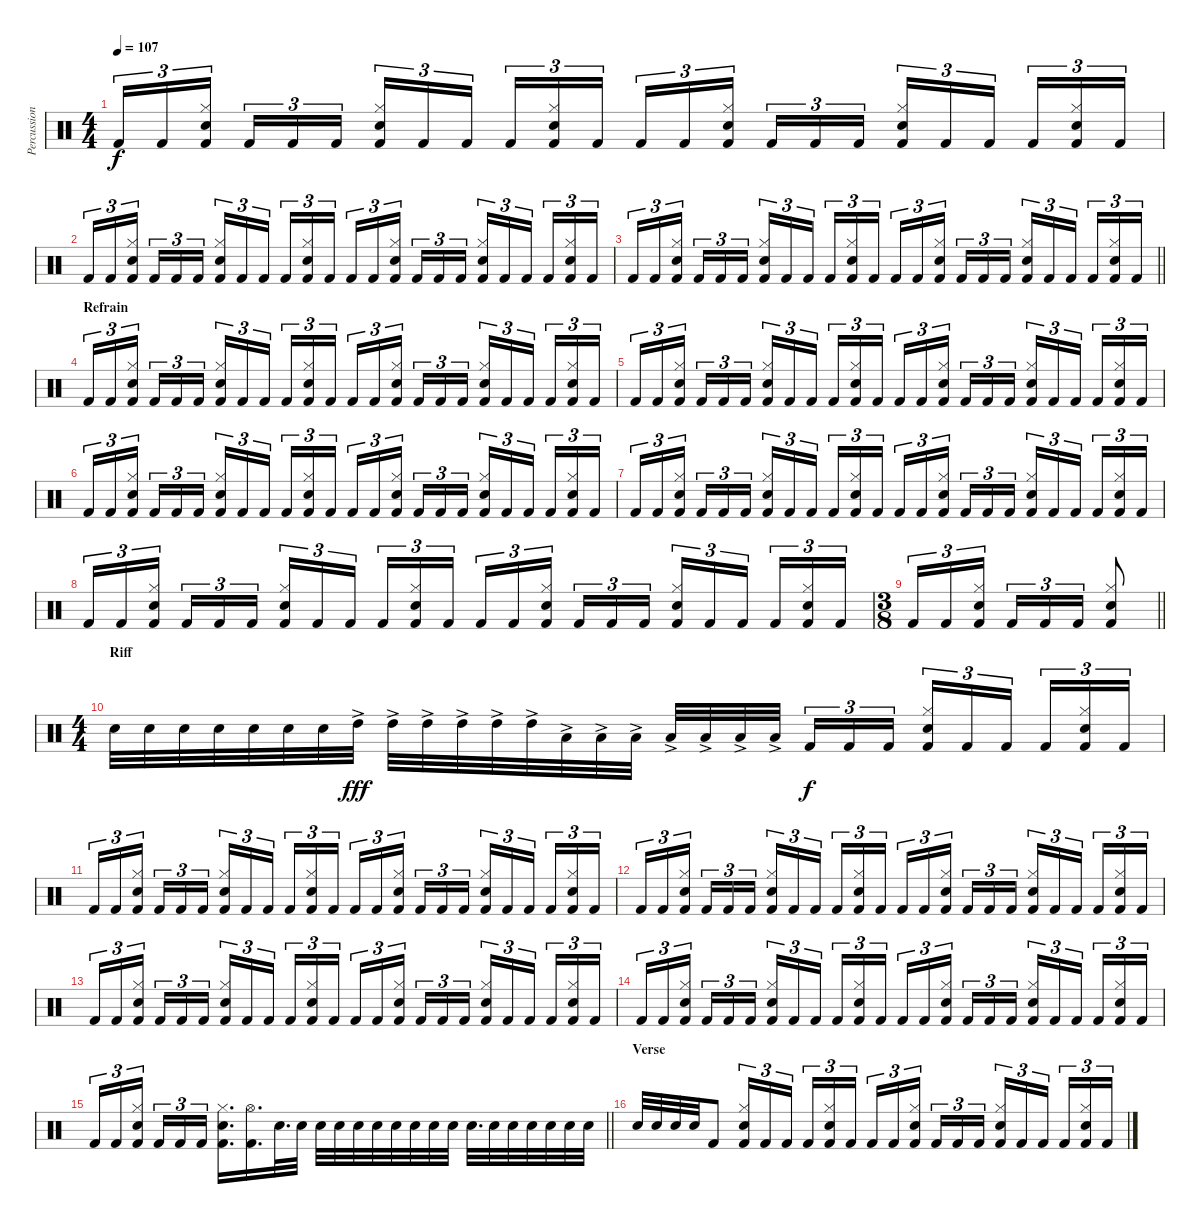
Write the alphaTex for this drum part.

\track ("Percussion" "Percussion") {instrument percussion}
\staff {score}
\articulation defaults
\ts (4 4)
\tempo 107
\clef neutral
\ks c "Kick (hit) 2".16{tu (3 2) dy f} "Kick (hit) 2".16{tu (3 2)}
("Kick (hit) 2" "Hi-Hat (closed)" "Electric Snare (hit)").16{tu (3 2) beam splitsecondary} "Kick (hit) 2".16{tu (3 2)} "Kick (hit) 2".16{tu (3 2)} "Kick (hit) 2".16{tu (3 2)} ("Kick (hit) 2" "Electric Snare (hit)" "Hi-Hat (closed)").16{tu (3 2)} "Kick (hit) 2".16{tu (3 2)} "Kick (hit) 2".16{tu (3 2) beam splitsecondary} "Kick (hit) 2".16{tu (3 2)} ("Kick (hit) 2" "Hi-Hat (closed)" "Electric Snare (hit)").16{tu (3 2)} "Kick (hit) 2".16{tu (3 2)} "Kick (hit) 2".16{tu (3 2)} "Kick (hit) 2".16{tu (3 2)} ("Kick (hit) 2" "Electric Snare (hit)" "Hi-Hat (closed)").16{tu (3 2) beam splitsecondary} "Kick (hit) 2".16{tu (3 2)} "Kick (hit) 2".16{tu (3 2)} "Kick (hit) 2".16{tu (3 2)} ("Kick (hit) 2" "Hi-Hat (closed)" "Electric Snare (hit)").16{tu (3 2)} "Kick (hit) 2".16{tu (3 2)} "Kick (hit) 2".16{tu (3 2) beam splitsecondary} "Kick (hit) 2".16{tu (3 2)} ("Kick (hit) 2" "Electric Snare (hit)" "Hi-Hat (closed)").16{tu (3 2)} "Kick (hit) 2".16{tu (3 2)} |
"Kick (hit) 2".16{tu (3 2)} "Kick (hit) 2".16{tu (3 2)} ("Kick (hit) 2" "Hi-Hat (closed)" "Electric Snare (hit)").16{tu (3 2) beam splitsecondary} "Kick (hit) 2".16{tu (3 2)} "Kick (hit) 2".16{tu (3 2)} "Kick (hit) 2".16{tu (3 2)} ("Kick (hit) 2" "Electric Snare (hit)" "Hi-Hat (closed)").16{tu (3 2)} "Kick (hit) 2".16{tu (3 2)} "Kick (hit) 2".16{tu (3 2) beam splitsecondary} "Kick (hit) 2".16{tu (3 2)} ("Kick (hit) 2" "Hi-Hat (closed)" "Electric Snare (hit)").16{tu (3 2)} "Kick (hit) 2".16{tu (3 2)} "Kick (hit) 2".16{tu (3 2)} "Kick (hit) 2".16{tu (3 2)} ("Kick (hit) 2" "Electric Snare (hit)" "Hi-Hat (closed)").16{tu (3 2) beam splitsecondary} "Kick (hit) 2".16{tu (3 2)} "Kick (hit) 2".16{tu (3 2)} "Kick (hit) 2".16{tu (3 2)} ("Kick (hit) 2" "Hi-Hat (closed)" "Electric Snare (hit)").16{tu (3 2)} "Kick (hit) 2".16{tu (3 2)} "Kick (hit) 2".16{tu (3 2) beam splitsecondary} "Kick (hit) 2".16{tu (3 2)} ("Kick (hit) 2" "Electric Snare (hit)" "Hi-Hat (closed)").16{tu (3 2)} "Kick (hit) 2".16{tu (3 2)} |
\barLineRight lightlight "Kick (hit) 2".16{tu (3 2)} "Kick (hit) 2".16{tu (3 2)}
("Kick (hit) 2" "Hi-Hat (closed)" "Electric Snare (hit)").16{tu (3 2) beam splitsecondary} "Kick (hit) 2".16{tu (3 2)} "Kick (hit) 2".16{tu (3 2)} "Kick (hit) 2".16{tu (3 2)} ("Kick (hit) 2" "Electric Snare (hit)" "Hi-Hat (closed)").16{tu (3 2)} "Kick (hit) 2".16{tu (3 2)} "Kick (hit) 2".16{tu (3 2) beam splitsecondary} "Kick (hit) 2".16{tu (3 2)} ("Kick (hit) 2" "Hi-Hat (closed)" "Electric Snare (hit)").16{tu (3 2)} "Kick (hit) 2".16{tu (3 2)} "Kick (hit) 2".16{tu (3 2)} "Kick (hit) 2".16{tu (3 2)} ("Kick (hit) 2" "Electric Snare (hit)" "Hi-Hat (closed)").16{tu (3 2) beam splitsecondary} "Kick (hit) 2".16{tu (3 2)} "Kick (hit) 2".16{tu (3 2)} "Kick (hit) 2".16{tu (3 2)} ("Kick (hit) 2" "Hi-Hat (closed)" "Electric Snare (hit)").16{tu (3 2)} "Kick (hit) 2".16{tu (3 2)} "Kick (hit) 2".16{tu (3 2) beam splitsecondary} "Kick (hit) 2".16{tu (3 2)} ("Kick (hit) 2" "Electric Snare (hit)" "Hi-Hat (closed)").16{tu (3 2)} "Kick (hit) 2".16{tu (3 2)} |
\section ("" "Refrain")
"Kick (hit) 2".16{tu (3 2)} "Kick (hit) 2".16{tu (3 2)} ("Kick (hit) 2" "Hi-Hat (closed)" "Electric Snare (hit)").16{tu (3 2) beam splitsecondary} "Kick (hit) 2".16{tu (3 2)} "Kick (hit) 2".16{tu (3 2)} "Kick (hit) 2".16{tu (3 2)} ("Kick (hit) 2" "Electric Snare (hit)" "Hi-Hat (closed)").16{tu (3 2)} "Kick (hit) 2".16{tu (3 2)} "Kick (hit) 2".16{tu (3 2) beam splitsecondary} "Kick (hit) 2".16{tu (3 2)} ("Kick (hit) 2" "Hi-Hat (closed)" "Electric Snare (hit)").16{tu (3 2)} "Kick (hit) 2".16{tu (3 2)} "Kick (hit) 2".16{tu (3 2)} "Kick (hit) 2".16{tu (3 2)} ("Kick (hit) 2" "Electric Snare (hit)" "Hi-Hat (closed)").16{tu (3 2) beam splitsecondary} "Kick (hit) 2".16{tu (3 2)} "Kick (hit) 2".16{tu (3 2)} "Kick (hit) 2".16{tu (3 2)} ("Kick (hit) 2" "Hi-Hat (closed)" "Electric Snare (hit)").16{tu (3 2)} "Kick (hit) 2".16{tu (3 2)} "Kick (hit) 2".16{tu (3 2) beam splitsecondary} "Kick (hit) 2".16{tu (3 2)} ("Kick (hit) 2" "Electric Snare (hit)" "Hi-Hat (closed)").16{tu (3 2)} "Kick (hit) 2".16{tu (3 2)} |
"Kick (hit) 2".16{tu (3 2)} "Kick (hit) 2".16{tu (3 2)} ("Kick (hit) 2" "Hi-Hat (closed)" "Electric Snare (hit)").16{tu (3 2) beam splitsecondary} "Kick (hit) 2".16{tu (3 2)} "Kick (hit) 2".16{tu (3 2)} "Kick (hit) 2".16{tu (3 2)} ("Kick (hit) 2" "Electric Snare (hit)" "Hi-Hat (closed)").16{tu (3 2)} "Kick (hit) 2".16{tu (3 2)} "Kick (hit) 2".16{tu (3 2) beam splitsecondary} "Kick (hit) 2".16{tu (3 2)} ("Kick (hit) 2" "Hi-Hat (closed)" "Electric Snare (hit)").16{tu (3 2)} "Kick (hit) 2".16{tu (3 2)} "Kick (hit) 2".16{tu (3 2)} "Kick (hit) 2".16{tu (3 2)} ("Kick (hit) 2" "Electric Snare (hit)" "Hi-Hat (closed)").16{tu (3 2) beam splitsecondary} "Kick (hit) 2".16{tu (3 2)} "Kick (hit) 2".16{tu (3 2)} "Kick (hit) 2".16{tu (3 2)} ("Kick (hit) 2" "Hi-Hat (closed)" "Electric Snare (hit)").16{tu (3 2)} "Kick (hit) 2".16{tu (3 2)} "Kick (hit) 2".16{tu (3 2) beam splitsecondary} "Kick (hit) 2".16{tu (3 2)} ("Kick (hit) 2" "Electric Snare (hit)" "Hi-Hat (closed)").16{tu (3 2)} "Kick (hit) 2".16{tu (3 2)} |
"Kick (hit) 2".16{tu (3 2)} "Kick (hit) 2".16{tu (3 2)} ("Kick (hit) 2" "Hi-Hat (closed)" "Electric Snare (hit)").16{tu (3 2) beam splitsecondary} "Kick (hit) 2".16{tu (3 2)} "Kick (hit) 2".16{tu (3 2)} "Kick (hit) 2".16{tu (3 2)} ("Kick (hit) 2" "Electric Snare (hit)" "Hi-Hat (closed)").16{tu (3 2)} "Kick (hit) 2".16{tu (3 2)} "Kick (hit) 2".16{tu (3 2) beam splitsecondary} "Kick (hit) 2".16{tu (3 2)} ("Kick (hit) 2" "Hi-Hat (closed)" "Electric Snare (hit)").16{tu (3 2)} "Kick (hit) 2".16{tu (3 2)} "Kick (hit) 2".16{tu (3 2)} "Kick (hit) 2".16{tu (3 2)} ("Kick (hit) 2" "Electric Snare (hit)" "Hi-Hat (closed)").16{tu (3 2) beam splitsecondary} "Kick (hit) 2".16{tu (3 2)} "Kick (hit) 2".16{tu (3 2)} "Kick (hit) 2".16{tu (3 2)} ("Kick (hit) 2" "Hi-Hat (closed)" "Electric Snare (hit)").16{tu (3 2)} "Kick (hit) 2".16{tu (3 2)} "Kick (hit) 2".16{tu (3 2) beam splitsecondary} "Kick (hit) 2".16{tu (3 2)} ("Kick (hit) 2" "Electric Snare (hit)" "Hi-Hat (closed)").16{tu (3 2)} "Kick (hit) 2".16{tu (3 2)} |
"Kick (hit) 2".16{tu (3 2)} "Kick (hit) 2".16{tu (3 2)} ("Kick (hit) 2" "Hi-Hat (closed)" "Electric Snare (hit)").16{tu (3 2) beam splitsecondary} "Kick (hit) 2".16{tu (3 2)} "Kick (hit) 2".16{tu (3 2)} "Kick (hit) 2".16{tu (3 2)} ("Kick (hit) 2" "Electric Snare (hit)" "Hi-Hat (closed)").16{tu (3 2)} "Kick (hit) 2".16{tu (3 2)} "Kick (hit) 2".16{tu (3 2) beam splitsecondary} "Kick (hit) 2".16{tu (3 2)} ("Kick (hit) 2" "Hi-Hat (closed)" "Electric Snare (hit)").16{tu (3 2)} "Kick (hit) 2".16{tu (3 2)} "Kick (hit) 2".16{tu (3 2)} "Kick (hit) 2".16{tu (3 2)} ("Kick (hit) 2" "Electric Snare (hit)" "Hi-Hat (closed)").16{tu (3 2) beam splitsecondary} "Kick (hit) 2".16{tu (3 2)} "Kick (hit) 2".16{tu (3 2)} "Kick (hit) 2".16{tu (3 2)} ("Kick (hit) 2" "Hi-Hat (closed)" "Electric Snare (hit)").16{tu (3 2)} "Kick (hit) 2".16{tu (3 2)} "Kick (hit) 2".16{tu (3 2) beam splitsecondary} "Kick (hit) 2".16{tu (3 2)} ("Kick (hit) 2" "Electric Snare (hit)" "Hi-Hat (closed)").16{tu (3 2)} "Kick (hit) 2".16{tu (3 2)} |
"Kick (hit) 2".16{tu (3 2)} "Kick (hit) 2".16{tu (3 2)} ("Kick (hit) 2" "Hi-Hat (closed)" "Electric Snare (hit)").16{tu (3 2) beam splitsecondary} "Kick (hit) 2".16{tu (3 2)} "Kick (hit) 2".16{tu (3 2)} "Kick (hit) 2".16{tu (3 2)} ("Kick (hit) 2" "Electric Snare (hit)" "Hi-Hat (closed)").16{tu (3 2)} "Kick (hit) 2".16{tu (3 2)} "Kick (hit) 2".16{tu (3 2) beam splitsecondary} "Kick (hit) 2".16{tu (3 2)} ("Kick (hit) 2" "Hi-Hat (closed)" "Electric Snare (hit)").16{tu (3 2)} "Kick (hit) 2".16{tu (3 2)} "Kick (hit) 2".16{tu (3 2)} "Kick (hit) 2".16{tu (3 2)} ("Kick (hit) 2" "Electric Snare (hit)" "Hi-Hat (closed)").16{tu (3 2) beam splitsecondary} "Kick (hit) 2".16{tu (3 2)} "Kick (hit) 2".16{tu (3 2)} "Kick (hit) 2".16{tu (3 2)} ("Kick (hit) 2" "Hi-Hat (closed)" "Electric Snare (hit)").16{tu (3 2)} "Kick (hit) 2".16{tu (3 2)} "Kick (hit) 2".16{tu (3 2) beam splitsecondary} "Kick (hit) 2".16{tu (3 2)} ("Kick (hit) 2" "Electric Snare (hit)" "Hi-Hat (closed)").16{tu (3 2)} "Kick (hit) 2".16{tu (3 2)} |
\ts (3 8)
\barLineRight lightlight "Kick (hit) 2".16{tu (3 2)} "Kick (hit) 2".16{tu (3 2)}
("Kick (hit) 2" "Hi-Hat (closed)" "Electric Snare (hit)").16{tu (3 2)} "Kick (hit) 2".16{tu (3 2)} "Kick (hit) 2".16{tu (3 2)} "Kick (hit) 2".16{tu (3 2)} ("Kick (hit) 2" "Electric Snare (hit)" "Hi-Hat (closed)").8 |
\ts (4 4)
\section ("" "Riff")
"Electric Snare (hit)".32 "Electric Snare (hit)".32 "Electric Snare (hit)".32 "Electric Snare (hit)".32 "Electric Snare (hit)".32 "Electric Snare (hit)".32 "Electric Snare (hit)".32 "High Tom (hit)"{ac}.32{dy fff} "High Tom (hit)"{ac}.32 "High Tom (hit)"{ac}.32 "High Tom (hit)"{ac}.32 "High Tom (hit)"{ac}.32 "High Tom (hit)"{ac}.32 "Low Tom (hit)"{ac}.32 "Low Tom (hit)"{ac}.32 "Low Tom (hit)"{ac}.32 "Low Tom (hit)"{ac}.32 "Low Tom (hit)"{ac}.32 "Low Tom (hit)"{ac}.32 "Low Tom (hit)"{ac}.32{beam splitsecondary} "Kick (hit) 2".16{tu (3 2) dy f} "Kick (hit) 2".16{tu (3 2)} "Kick (hit) 2".16{tu (3 2)} ("Kick (hit) 2" "Electric Snare (hit)" "Hi-Hat (closed)").16{tu (3 2)} "Kick (hit) 2".16{tu (3 2)} "Kick (hit) 2".16{tu (3 2) beam splitsecondary} "Kick (hit) 2".16{tu (3 2)} ("Kick (hit) 2" "Electric Snare (hit)" "Hi-Hat (closed)").16{tu (3 2)} "Kick (hit) 2".16{tu (3 2)} |
"Kick (hit) 2".16{tu (3 2)} "Kick (hit) 2".16{tu (3 2)} ("Kick (hit) 2" "Electric Snare (hit)" "Hi-Hat (closed)").16{tu (3 2) beam splitsecondary} "Kick (hit) 2".16{tu (3 2)} "Kick (hit) 2".16{tu (3 2)} "Kick (hit) 2".16{tu (3 2)} ("Kick (hit) 2" "Electric Snare (hit)" "Hi-Hat (closed)").16{tu (3 2)} "Kick (hit) 2".16{tu (3 2)} "Kick (hit) 2".16{tu (3 2) beam splitsecondary} "Kick (hit) 2".16{tu (3 2)} ("Kick (hit) 2" "Electric Snare (hit)" "Hi-Hat (closed)").16{tu (3 2)} "Kick (hit) 2".16{tu (3 2)} "Kick (hit) 2".16{tu (3 2)} "Kick (hit) 2".16{tu (3 2)} ("Kick (hit) 2" "Electric Snare (hit)" "Hi-Hat (closed)").16{tu (3 2) beam splitsecondary} "Kick (hit) 2".16{tu (3 2)} "Kick (hit) 2".16{tu (3 2)} "Kick (hit) 2".16{tu (3 2)} ("Kick (hit) 2" "Electric Snare (hit)" "Hi-Hat (closed)").16{tu (3 2)} "Kick (hit) 2".16{tu (3 2)} "Kick (hit) 2".16{tu (3 2) beam splitsecondary} "Kick (hit) 2".16{tu (3 2)} ("Kick (hit) 2" "Hi-Hat (closed)" "Electric Snare (hit)").16{tu (3 2)} "Kick (hit) 2".16{tu (3 2)} |
"Kick (hit) 2".16{tu (3 2)} "Kick (hit) 2".16{tu (3 2)} ("Kick (hit) 2" "Electric Snare (hit)" "Hi-Hat (closed)").16{tu (3 2) beam splitsecondary} "Kick (hit) 2".16{tu (3 2)} "Kick (hit) 2".16{tu (3 2)} "Kick (hit) 2".16{tu (3 2)} ("Kick (hit) 2" "Electric Snare (hit)" "Hi-Hat (closed)").16{tu (3 2)} "Kick (hit) 2".16{tu (3 2)} "Kick (hit) 2".16{tu (3 2) beam splitsecondary} "Kick (hit) 2".16{tu (3 2)} ("Kick (hit) 2" "Electric Snare (hit)" "Hi-Hat (closed)").16{tu (3 2)} "Kick (hit) 2".16{tu (3 2)} "Kick (hit) 2".16{tu (3 2)} "Kick (hit) 2".16{tu (3 2)} ("Kick (hit) 2" "Electric Snare (hit)" "Hi-Hat (closed)").16{tu (3 2) beam splitsecondary} "Kick (hit) 2".16{tu (3 2)} "Kick (hit) 2".16{tu (3 2)} "Kick (hit) 2".16{tu (3 2)} ("Kick (hit) 2" "Electric Snare (hit)" "Hi-Hat (closed)").16{tu (3 2)} "Kick (hit) 2".16{tu (3 2)} "Kick (hit) 2".16{tu (3 2) beam splitsecondary} "Kick (hit) 2".16{tu (3 2)} ("Kick (hit) 2" "Hi-Hat (closed)" "Electric Snare (hit)").16{tu (3 2)} "Kick (hit) 2".16{tu (3 2)} |
"Kick (hit) 2".16{tu (3 2)} "Kick (hit) 2".16{tu (3 2)} ("Kick (hit) 2" "Electric Snare (hit)" "Hi-Hat (closed)").16{tu (3 2) beam splitsecondary} "Kick (hit) 2".16{tu (3 2)} "Kick (hit) 2".16{tu (3 2)} "Kick (hit) 2".16{tu (3 2)} ("Kick (hit) 2" "Electric Snare (hit)" "Hi-Hat (closed)").16{tu (3 2)} "Kick (hit) 2".16{tu (3 2)} "Kick (hit) 2".16{tu (3 2) beam splitsecondary} "Kick (hit) 2".16{tu (3 2)} ("Kick (hit) 2" "Electric Snare (hit)" "Hi-Hat (closed)").16{tu (3 2)} "Kick (hit) 2".16{tu (3 2)} "Kick (hit) 2".16{tu (3 2)} "Kick (hit) 2".16{tu (3 2)} ("Kick (hit) 2" "Electric Snare (hit)" "Hi-Hat (closed)").16{tu (3 2) beam splitsecondary} "Kick (hit) 2".16{tu (3 2)} "Kick (hit) 2".16{tu (3 2)} "Kick (hit) 2".16{tu (3 2)} ("Kick (hit) 2" "Electric Snare (hit)" "Hi-Hat (closed)").16{tu (3 2)} "Kick (hit) 2".16{tu (3 2)} "Kick (hit) 2".16{tu (3 2) beam splitsecondary} "Kick (hit) 2".16{tu (3 2)} ("Kick (hit) 2" "Hi-Hat (closed)" "Electric Snare (hit)").16{tu (3 2)} "Kick (hit) 2".16{tu (3 2)} |
"Kick (hit) 2".16{tu (3 2)} "Kick (hit) 2".16{tu (3 2)} ("Kick (hit) 2" "Electric Snare (hit)" "Hi-Hat (closed)").16{tu (3 2) beam splitsecondary} "Kick (hit) 2".16{tu (3 2)} "Kick (hit) 2".16{tu (3 2)} "Kick (hit) 2".16{tu (3 2)} ("Kick (hit) 2" "Electric Snare (hit)" "Hi-Hat (closed)").16{tu (3 2)} "Kick (hit) 2".16{tu (3 2)} "Kick (hit) 2".16{tu (3 2) beam splitsecondary} "Kick (hit) 2".16{tu (3 2)} ("Kick (hit) 2" "Electric Snare (hit)" "Hi-Hat (closed)").16{tu (3 2)} "Kick (hit) 2".16{tu (3 2)} "Kick (hit) 2".16{tu (3 2)} "Kick (hit) 2".16{tu (3 2)} ("Kick (hit) 2" "Electric Snare (hit)" "Hi-Hat (closed)").16{tu (3 2) beam splitsecondary} "Kick (hit) 2".16{tu (3 2)} "Kick (hit) 2".16{tu (3 2)} "Kick (hit) 2".16{tu (3 2)} ("Kick (hit) 2" "Electric Snare (hit)" "Hi-Hat (closed)").16{tu (3 2)} "Kick (hit) 2".16{tu (3 2)} "Kick (hit) 2".16{tu (3 2) beam splitsecondary} "Kick (hit) 2".16{tu (3 2)} ("Kick (hit) 2" "Hi-Hat (closed)" "Electric Snare (hit)").16{tu (3 2)} "Kick (hit) 2".16{tu (3 2)} |
\barLineRight lightlight "Kick (hit) 2".16{tu (3 2)} "Kick (hit) 2".16{tu (3 2)}
("Kick (hit) 2" "Electric Snare (hit)" "Hi-Hat (closed)").16{tu (3 2) beam splitsecondary} "Kick (hit) 2".16{tu (3 2)} "Kick (hit) 2".16{tu (3 2)} "Kick (hit) 2".16{tu (3 2)} ("Kick (hit) 2" "Electric Snare (hit)" "Hi-Hat (closed)").16{d} ("Kick (hit) 2" "Hi-Hat (open)").16{d} "Electric Snare (hit)".32{d} "Electric Snare (hit)".32 "Electric Snare (hit)".32 "Electric Snare (hit)".32 "Electric Snare (hit)".32 "Electric Snare (hit)".32 "Electric Snare (hit)".32 "Electric Snare (hit)".32 "Electric Snare (hit)".32 "Electric Snare (hit)".32 "Electric Snare (hit)".32{d} "Electric Snare (hit)".32 "Electric Snare (hit)".32 "Electric Snare (hit)".32 "Electric Snare (hit)".32 "Electric Snare (hit)".32 "Electric Snare (hit)".32 |
\section ("" "Verse")
"Electric Snare (hit)".32 "Electric Snare (hit)".32 "Electric Snare (hit)".32 "Electric Snare (hit)".32 "Kick (hit) 2".8 ("Kick (hit) 2" "Electric Snare (hit)" "Hi-Hat (closed)").16{tu (3 2)} "Kick (hit) 2".16{tu (3 2)} "Kick (hit) 2".16{tu (3 2) beam splitsecondary} "Kick (hit) 2".16{tu (3 2)} ("Kick (hit) 2" "Electric Snare (hit)" "Hi-Hat (closed)").16{tu (3 2)} "Kick (hit) 2".16{tu (3 2)} "Kick (hit) 2".16{tu (3 2)} "Kick (hit) 2".16{tu (3 2)} ("Kick (hit) 2" "Electric Snare (hit)" "Hi-Hat (closed)").16{tu (3 2) beam splitsecondary} "Kick (hit) 2".16{tu (3 2)} "Kick (hit) 2".16{tu (3 2)} "Kick (hit) 2".16{tu (3 2)} ("Kick (hit) 2" "Electric Snare (hit)" "Hi-Hat (closed)").16{tu (3 2)} "Kick (hit) 2".16{tu (3 2)} "Kick (hit) 2".16{tu (3 2) beam splitsecondary} "Kick (hit) 2".16{tu (3 2)} ("Kick (hit) 2" "Hi-Hat (closed)" "Electric Snare (hit)").16{tu (3 2)} "Kick (hit) 2".16{tu (3 2)}
